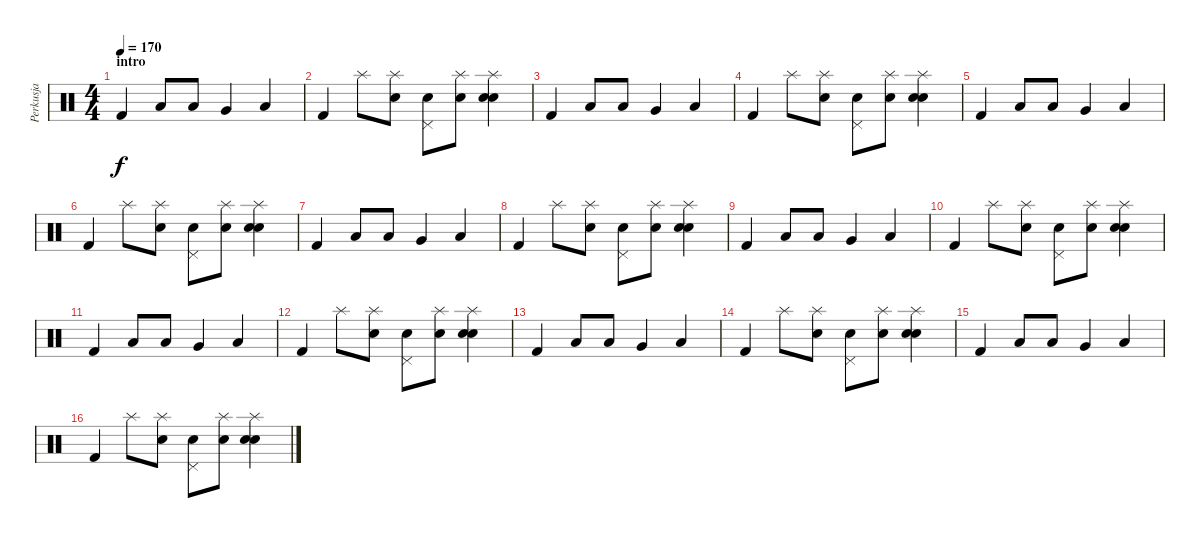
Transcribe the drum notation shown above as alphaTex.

\track ("Perkusja" "Perkusja") {instrument percussion}
\staff {score}
\articulation defaults
\ts (4 4)
\section ("" "intro")
\tempo 170
\clef neutral
\ks c "Kick (hit) 2".4{dy f} "Low Tom (hit)".8 "Low Tom (hit)".8 "Very Low Tom (hit)".4 "Low Tom (hit)".4
|
"Kick (hit) 2".4 "Splash (hit)".8 ("Splash (hit)" "Electric Snare (hit)").8 ("Pedal Hi-Hat (hit)" "Electric Snare (hit)").8 ("Splash (hit)" "Electric Snare (hit)").8 ("Splash (hit)" "Electric Snare (hit)" "Snare (hit) 2").4 |
"Kick (hit) 2".4 "Low Tom (hit)".8 "Low Tom (hit)".8 "Very Low Tom (hit)".4 "Low Tom (hit)".4 |
"Kick (hit) 2".4 "Splash (hit)".8 ("Splash (hit)" "Electric Snare (hit)").8 ("Pedal Hi-Hat (hit)" "Electric Snare (hit)").8 ("Splash (hit)" "Electric Snare (hit)").8 ("Splash (hit)" "Electric Snare (hit)" "Snare (hit) 2").4 |
"Kick (hit) 2".4 "Low Tom (hit)".8 "Low Tom (hit)".8 "Very Low Tom (hit)".4 "Low Tom (hit)".4 |
"Kick (hit) 2".4 "Splash (hit)".8 ("Splash (hit)" "Electric Snare (hit)").8 ("Pedal Hi-Hat (hit)" "Electric Snare (hit)").8 ("Splash (hit)" "Electric Snare (hit)").8 ("Splash (hit)" "Electric Snare (hit)" "Snare (hit) 2").4 |
"Kick (hit) 2".4 "Low Tom (hit)".8 "Low Tom (hit)".8 "Very Low Tom (hit)".4 "Low Tom (hit)".4 |
"Kick (hit) 2".4 "Splash (hit)".8 ("Splash (hit)" "Electric Snare (hit)").8 ("Pedal Hi-Hat (hit)" "Electric Snare (hit)").8 ("Splash (hit)" "Electric Snare (hit)").8 ("Splash (hit)" "Electric Snare (hit)" "Snare (hit) 2").4 |
"Kick (hit) 2".4 "Low Tom (hit)".8 "Low Tom (hit)".8 "Very Low Tom (hit)".4 "Low Tom (hit)".4 |
"Kick (hit) 2".4 "Splash (hit)".8 ("Splash (hit)" "Electric Snare (hit)").8 ("Pedal Hi-Hat (hit)" "Electric Snare (hit)").8 ("Splash (hit)" "Electric Snare (hit)").8 ("Splash (hit)" "Electric Snare (hit)" "Snare (hit) 2").4 |
"Kick (hit) 2".4 "Low Tom (hit)".8 "Low Tom (hit)".8 "Very Low Tom (hit)".4 "Low Tom (hit)".4 |
"Kick (hit) 2".4 "Splash (hit)".8 ("Splash (hit)" "Electric Snare (hit)").8 ("Pedal Hi-Hat (hit)" "Electric Snare (hit)").8 ("Splash (hit)" "Electric Snare (hit)").8 ("Splash (hit)" "Electric Snare (hit)" "Snare (hit) 2").4 |
"Kick (hit) 2".4 "Low Tom (hit)".8 "Low Tom (hit)".8 "Very Low Tom (hit)".4 "Low Tom (hit)".4 |
"Kick (hit) 2".4 "Splash (hit)".8 ("Splash (hit)" "Electric Snare (hit)").8 ("Pedal Hi-Hat (hit)" "Electric Snare (hit)").8 ("Splash (hit)" "Electric Snare (hit)").8 ("Splash (hit)" "Electric Snare (hit)" "Snare (hit) 2").4 |
"Kick (hit) 2".4 "Low Tom (hit)".8 "Low Tom (hit)".8 "Very Low Tom (hit)".4 "Low Tom (hit)".4 |
"Kick (hit) 2".4 "Splash (hit)".8 ("Splash (hit)" "Electric Snare (hit)").8 ("Pedal Hi-Hat (hit)" "Electric Snare (hit)").8 ("Splash (hit)" "Electric Snare (hit)").8 ("Splash (hit)" "Electric Snare (hit)" "Snare (hit) 2").4
